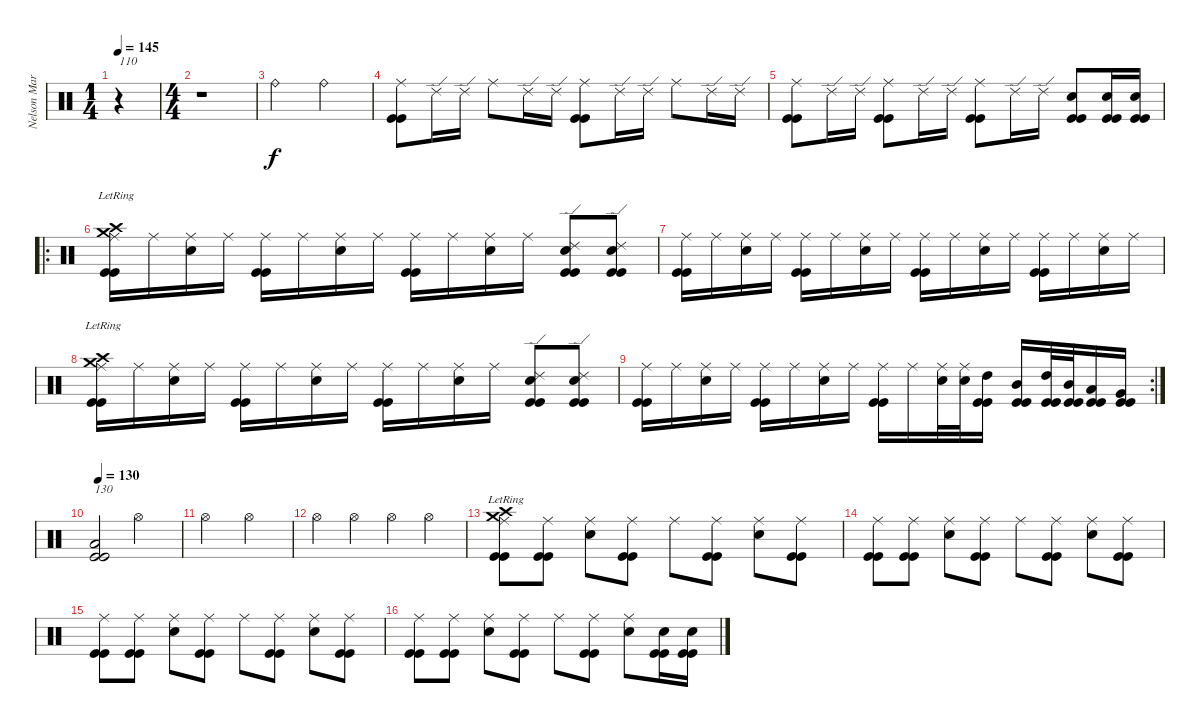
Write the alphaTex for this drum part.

\track ("Nelson Maria" "Nelson Mar") {instrument percussion}
\staff {score}
\articulation defaults
\ts (1 4)
\tempo 145
\tempo 110
\tempo 145
\clef neutral
\ks c
r.4{txt "110" dy f} |
\ts (4 4)
r.1 |
"Ride (bell)".2 "Ride (bell)".2 |
("Ride (middle)" "Kick (hit)" "Kick (hit)").8 "Ride (edge) 2".16 "Ride (edge) 2".16 "Ride (middle)".8 "Ride (edge) 2".16 "Ride (edge) 2".16 ("Ride (middle)" "Kick (hit)" "Kick (hit)").8 "Ride (edge) 2".16 "Ride (edge) 2".16 "Ride (middle)".8 "Ride (edge) 2".16 "Ride (edge) 2".16 |
("Ride (middle)" "Kick (hit)" "Kick (hit)").8 "Ride (edge) 2".16 "Ride (edge) 2".16 ("Ride (middle)" "Kick (hit)" "Kick (hit)").8 "Ride (edge) 2".16 "Ride (edge) 2".16 ("Ride (middle)" "Kick (hit)" "Kick (hit)").8 "Ride (edge) 2".16 "Ride (edge) 2".16 ("Snare (hit) 2" "Kick (hit)" "Kick (hit)").8 ("Snare (hit) 2" "Kick (hit)" "Kick (hit)").16 ("Snare (hit) 2" "Kick (hit)" "Kick (hit)").16 |
\ro
("Crash high (hit)"{lr} "Crash medium (hit)"{lr} "Ride (middle)" "Kick (hit)" "Kick (hit)").16 "Ride (middle)".16 ("Snare (hit) 2" "Ride (middle)").16 "Ride (middle)".16 ("Ride (middle)" "Kick (hit)" "Kick (hit)").16 "Ride (middle)".16 ("Snare (hit) 2" "Ride (middle)").16 "Ride (middle)".16 ("Ride (middle)" "Kick (hit)" "Kick (hit)").16 "Ride (middle)".16 ("Snare (hit) 2" "Ride (middle)").16 "Ride (middle)".16 ("Snare (hit) 2" "Ride (edge) 2" "Kick (hit)" "Kick (hit)").8 ("Snare (hit) 2" "Ride (edge) 2" "Kick (hit)" "Kick (hit)").8 |
("Ride (middle)" "Kick (hit)" "Kick (hit)").16 "Ride (middle)".16 ("Snare (hit) 2" "Ride (middle)").16 "Ride (middle)".16 ("Ride (middle)" "Kick (hit)" "Kick (hit)").16 "Ride (middle)".16 ("Snare (hit) 2" "Ride (middle)").16 "Ride (middle)".16 ("Ride (middle)" "Kick (hit)" "Kick (hit)").16 "Ride (middle)".16 ("Snare (hit) 2" "Ride (middle)").16 "Ride (middle)".16 ("Ride (middle)" "Kick (hit)" "Kick (hit)").16 "Ride (middle)".16 ("Snare (hit) 2" "Ride (middle)").16 "Ride (middle)".16 |
("Crash high (hit)"{lr} "Crash medium (hit)"{lr} "Ride (middle)" "Kick (hit)" "Kick (hit)").16 "Ride (middle)".16 ("Snare (hit) 2" "Ride (middle)").16 "Ride (middle)".16 ("Ride (middle)" "Kick (hit)" "Kick (hit)").16 "Ride (middle)".16 ("Snare (hit) 2" "Ride (middle)").16 "Ride (middle)".16 ("Ride (middle)" "Kick (hit)" "Kick (hit)").16 "Ride (middle)".16 ("Snare (hit) 2" "Ride (middle)").16 "Ride (middle)".16 ("Snare (hit) 2" "Ride (edge) 2" "Kick (hit)" "Kick (hit)").8 ("Snare (hit) 2" "Ride (edge) 2" "Kick (hit)" "Kick (hit)").8 |
\rc 2
("Ride (middle)" "Kick (hit)" "Kick (hit)").16 "Ride (middle)".16 ("Snare (hit) 2" "Ride (middle)").16 "Ride (middle)".16 ("Ride (middle)" "Kick (hit)" "Kick (hit)").16 "Ride (middle)".16 ("Snare (hit) 2" "Ride (middle)").16 "Ride (middle)".16 ("Ride (middle)" "Kick (hit)" "Kick (hit)").16 "Ride (middle)".16 ("Snare (hit) 2" "Ride (middle)").32 ("Snare (hit) 2" "Ride (middle)").32 ("High Tom (hit)" "Kick (hit)" "Kick (hit)").16 ("Mid Tom (hit)" "Kick (hit)" "Kick (hit)").16 ("High Tom (hit)" "Kick (hit)" "Kick (hit)").32 ("Mid Tom (hit)" "Kick (hit)" "Kick (hit)").32 ("Low Tom (hit)" "Kick (hit)" "Kick (hit)").16 ("Very Low Tom (hit)" "Kick (hit)" "Kick (hit)").16 |
\tempo 130
("Low Floor Tom (hit)" "Kick (hit)" "Kick (hit)").2{txt "130"} "Hi-Hat (open)".2 |
"Hi-Hat (open)".2 "Hi-Hat (open)".2 |
"Hi-Hat (open)".4 "Hi-Hat (open)".4 "Hi-Hat (open)".4 "Hi-Hat (open)".4 |
("Crash high (hit)"{lr} "Crash medium (hit)"{lr} "Ride (middle)" "Kick (hit)" "Kick (hit)").8 ("Ride (middle)" "Kick (hit)" "Kick (hit)").8 ("Snare (hit) 2" "Ride (middle)").8 ("Ride (middle)" "Kick (hit)" "Kick (hit)").8 "Ride (middle)".8 ("Ride (middle)" "Kick (hit)" "Kick (hit)").8 ("Snare (hit) 2" "Ride (middle)").8 ("Ride (middle)" "Kick (hit)" "Kick (hit)").8 |
("Ride (middle)" "Kick (hit)" "Kick (hit)").8 ("Ride (middle)" "Kick (hit)" "Kick (hit)").8 ("Snare (hit) 2" "Ride (middle)").8 ("Ride (middle)" "Kick (hit)" "Kick (hit)").8 "Ride (middle)".8 ("Ride (middle)" "Kick (hit)" "Kick (hit)").8 ("Snare (hit) 2" "Ride (middle)").8 ("Ride (middle)" "Kick (hit)" "Kick (hit)").8 |
("Ride (middle)" "Kick (hit)" "Kick (hit)").8 ("Ride (middle)" "Kick (hit)" "Kick (hit)").8 ("Snare (hit) 2" "Ride (middle)").8 ("Ride (middle)" "Kick (hit)" "Kick (hit)").8 "Ride (middle)".8 ("Ride (middle)" "Kick (hit)" "Kick (hit)").8 ("Snare (hit) 2" "Ride (middle)").8 ("Ride (middle)" "Kick (hit)" "Kick (hit)").8 |
("Ride (middle)" "Kick (hit)" "Kick (hit)").8 ("Ride (middle)" "Kick (hit)" "Kick (hit)").8 ("Snare (hit) 2" "Ride (middle)").8 ("Ride (middle)" "Kick (hit)" "Kick (hit)").8 "Ride (middle)".8 ("Ride (middle)" "Kick (hit)" "Kick (hit)").8 ("Snare (hit) 2" "Ride (middle)").8 ("Snare (hit) 2" "Kick (hit)" "Kick (hit)").16 ("Snare (hit) 2" "Kick (hit)" "Kick (hit)").16
